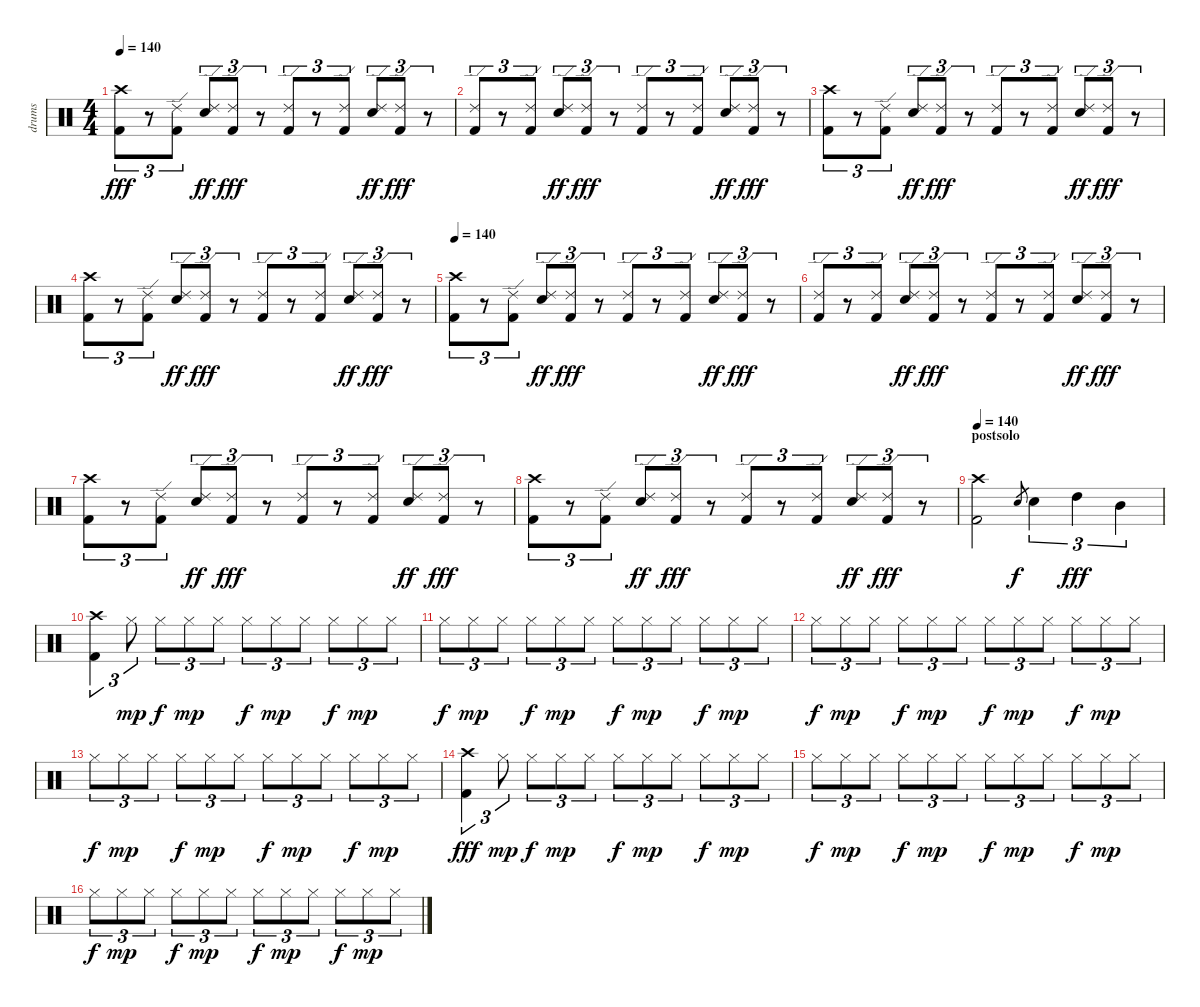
\track ("drums" "drums") {instrument percussion}
\staff {score}
\articulation defaults
\ts (4 4)
\tempo 140
\clef neutral
\ks c
("Crash high (hit)" "Kick (hit) 2").8{tu (3 2) dy fff} r.8{tu (3 2)} ("Ride (edge) 2" "Kick (hit) 2").8{tu (3 2)} ("Ride (edge) 2" "Snare (hit) 2").8{tu (3 2) dy ff} ("Ride (edge) 2" "Kick (hit) 2").8{tu (3 2) dy fff} r.8{tu (3 2)} ("Ride (edge) 2" "Kick (hit) 2").8{tu (3 2)} r.8{tu (3 2)} ("Ride (edge) 2" "Kick (hit) 2").8{tu (3 2)} ("Ride (edge) 2" "Snare (hit) 2").8{tu (3 2) dy ff} ("Ride (edge) 2" "Kick (hit) 2").8{tu (3 2) dy fff} r.8{tu (3 2)} |
("Ride (edge) 2" "Kick (hit) 2").8{tu (3 2)} r.8{tu (3 2)} ("Ride (edge) 2" "Kick (hit) 2").8{tu (3 2)} ("Ride (edge) 2" "Snare (hit) 2").8{tu (3 2) dy ff} ("Ride (edge) 2" "Kick (hit) 2").8{tu (3 2) dy fff} r.8{tu (3 2)} ("Ride (edge) 2" "Kick (hit) 2").8{tu (3 2)} r.8{tu (3 2)} ("Ride (edge) 2" "Kick (hit) 2").8{tu (3 2)} ("Ride (edge) 2" "Snare (hit) 2").8{tu (3 2) dy ff} ("Ride (edge) 2" "Kick (hit) 2").8{tu (3 2) dy fff} r.8{tu (3 2)} |
("Crash high (hit)" "Kick (hit) 2").8{tu (3 2)} r.8{tu (3 2)} ("Ride (edge) 2" "Kick (hit) 2").8{tu (3 2)} ("Ride (edge) 2" "Snare (hit) 2").8{tu (3 2) dy ff} ("Ride (edge) 2" "Kick (hit) 2").8{tu (3 2) dy fff} r.8{tu (3 2)} ("Ride (edge) 2" "Kick (hit) 2").8{tu (3 2)} r.8{tu (3 2)} ("Ride (edge) 2" "Kick (hit) 2").8{tu (3 2)} ("Ride (edge) 2" "Snare (hit) 2").8{tu (3 2) dy ff} ("Ride (edge) 2" "Kick (hit) 2").8{tu (3 2) dy fff} r.8{tu (3 2)} |
("Crash high (hit)" "Kick (hit) 2").8{tu (3 2)} r.8{tu (3 2)} ("Ride (edge) 2" "Kick (hit) 2").8{tu (3 2)} ("Ride (edge) 2" "Snare (hit) 2").8{tu (3 2) dy ff} ("Ride (edge) 2" "Kick (hit) 2").8{tu (3 2) dy fff} r.8{tu (3 2)} ("Ride (edge) 2" "Kick (hit) 2").8{tu (3 2)} r.8{tu (3 2)} ("Ride (edge) 2" "Kick (hit) 2").8{tu (3 2)} ("Ride (edge) 2" "Snare (hit) 2").8{tu (3 2) dy ff} ("Ride (edge) 2" "Kick (hit) 2").8{tu (3 2) dy fff} r.8{tu (3 2)} |
\tempo 140
("Crash high (hit)" "Kick (hit) 2").8{tu (3 2)} r.8{tu (3 2)} ("Ride (edge) 2" "Kick (hit) 2").8{tu (3 2)} ("Ride (edge) 2" "Snare (hit) 2").8{tu (3 2) dy ff} ("Ride (edge) 2" "Kick (hit) 2").8{tu (3 2) dy fff} r.8{tu (3 2)} ("Ride (edge) 2" "Kick (hit) 2").8{tu (3 2)} r.8{tu (3 2)} ("Ride (edge) 2" "Kick (hit) 2").8{tu (3 2)} ("Ride (edge) 2" "Snare (hit) 2").8{tu (3 2) dy ff} ("Ride (edge) 2" "Kick (hit) 2").8{tu (3 2) dy fff} r.8{tu (3 2)} |
("Ride (edge) 2" "Kick (hit) 2").8{tu (3 2)} r.8{tu (3 2)} ("Ride (edge) 2" "Kick (hit) 2").8{tu (3 2)} ("Ride (edge) 2" "Snare (hit) 2").8{tu (3 2) dy ff} ("Ride (edge) 2" "Kick (hit) 2").8{tu (3 2) dy fff} r.8{tu (3 2)} ("Ride (edge) 2" "Kick (hit) 2").8{tu (3 2)} r.8{tu (3 2)} ("Ride (edge) 2" "Kick (hit) 2").8{tu (3 2)} ("Ride (edge) 2" "Snare (hit) 2").8{tu (3 2) dy ff} ("Ride (edge) 2" "Kick (hit) 2").8{tu (3 2) dy fff} r.8{tu (3 2)} |
("Crash high (hit)" "Kick (hit) 2").8{tu (3 2)} r.8{tu (3 2)} ("Ride (edge) 2" "Kick (hit) 2").8{tu (3 2)} ("Ride (edge) 2" "Snare (hit) 2").8{tu (3 2) dy ff} ("Ride (edge) 2" "Kick (hit) 2").8{tu (3 2) dy fff} r.8{tu (3 2)} ("Ride (edge) 2" "Kick (hit) 2").8{tu (3 2)} r.8{tu (3 2)} ("Ride (edge) 2" "Kick (hit) 2").8{tu (3 2)} ("Ride (edge) 2" "Snare (hit) 2").8{tu (3 2) dy ff} ("Ride (edge) 2" "Kick (hit) 2").8{tu (3 2) dy fff} r.8{tu (3 2)} |
("Crash high (hit)" "Kick (hit) 2").8{tu (3 2)} r.8{tu (3 2)} ("Ride (edge) 2" "Kick (hit) 2").8{tu (3 2)} ("Ride (edge) 2" "Snare (hit) 2").8{tu (3 2) dy ff} ("Ride (edge) 2" "Kick (hit) 2").8{tu (3 2) dy fff} r.8{tu (3 2)} ("Ride (edge) 2" "Kick (hit) 2").8{tu (3 2)} r.8{tu (3 2)} ("Ride (edge) 2" "Kick (hit) 2").8{tu (3 2)} ("Ride (edge) 2" "Snare (hit) 2").8{tu (3 2) dy ff} ("Ride (edge) 2" "Kick (hit) 2").8{tu (3 2) dy fff} r.8{tu (3 2)} |
\section ("" "postsolo")
\tempo 140
("Crash high (hit)" "Kick (hit) 2").2 "Snare (hit) 2".8{gr dy f} "Snare (hit) 2".4{tu (3 2)} "High Tom (hit)".4{tu (3 2) dy fff} "Mid Tom (hit)".4{tu (3 2)} |
("Crash high (hit)" "Kick (hit) 2").4{tu (3 2)} "Hi-Hat (closed)".8{tu (3 2) dy mp} "Hi-Hat (closed)".8{tu (3 2) dy f} "Hi-Hat (closed)".8{tu (3 2) dy mp} "Hi-Hat (closed)".8{tu (3 2)} "Hi-Hat (closed)".8{tu (3 2) dy f} "Hi-Hat (closed)".8{tu (3 2) dy mp} "Hi-Hat (closed)".8{tu (3 2)} "Hi-Hat (closed)".8{tu (3 2) dy f} "Hi-Hat (closed)".8{tu (3 2) dy mp} "Hi-Hat (closed)".8{tu (3 2)} |
"Hi-Hat (closed)".8{tu (3 2) dy f} "Hi-Hat (closed)".8{tu (3 2) dy mp} "Hi-Hat (closed)".8{tu (3 2)} "Hi-Hat (closed)".8{tu (3 2) dy f} "Hi-Hat (closed)".8{tu (3 2) dy mp} "Hi-Hat (closed)".8{tu (3 2)} "Hi-Hat (closed)".8{tu (3 2) dy f} "Hi-Hat (closed)".8{tu (3 2) dy mp} "Hi-Hat (closed)".8{tu (3 2)} "Hi-Hat (closed)".8{tu (3 2) dy f} "Hi-Hat (closed)".8{tu (3 2) dy mp} "Hi-Hat (closed)".8{tu (3 2)} |
"Hi-Hat (closed)".8{tu (3 2) dy f} "Hi-Hat (closed)".8{tu (3 2) dy mp} "Hi-Hat (closed)".8{tu (3 2)} "Hi-Hat (closed)".8{tu (3 2) dy f} "Hi-Hat (closed)".8{tu (3 2) dy mp} "Hi-Hat (closed)".8{tu (3 2)} "Hi-Hat (closed)".8{tu (3 2) dy f} "Hi-Hat (closed)".8{tu (3 2) dy mp} "Hi-Hat (closed)".8{tu (3 2)} "Hi-Hat (closed)".8{tu (3 2) dy f} "Hi-Hat (closed)".8{tu (3 2) dy mp} "Hi-Hat (closed)".8{tu (3 2)} |
"Hi-Hat (closed)".8{tu (3 2) dy f} "Hi-Hat (closed)".8{tu (3 2) dy mp} "Hi-Hat (closed)".8{tu (3 2)} "Hi-Hat (closed)".8{tu (3 2) dy f} "Hi-Hat (closed)".8{tu (3 2) dy mp} "Hi-Hat (closed)".8{tu (3 2)} "Hi-Hat (closed)".8{tu (3 2) dy f} "Hi-Hat (closed)".8{tu (3 2) dy mp} "Hi-Hat (closed)".8{tu (3 2)} "Hi-Hat (closed)".8{tu (3 2) dy f} "Hi-Hat (closed)".8{tu (3 2) dy mp} "Hi-Hat (closed)".8{tu (3 2)} |
("Crash high (hit)" "Kick (hit) 2").4{tu (3 2) dy fff} "Hi-Hat (closed)".8{tu (3 2) dy mp} "Hi-Hat (closed)".8{tu (3 2) dy f} "Hi-Hat (closed)".8{tu (3 2) dy mp} "Hi-Hat (closed)".8{tu (3 2)} "Hi-Hat (closed)".8{tu (3 2) dy f} "Hi-Hat (closed)".8{tu (3 2) dy mp} "Hi-Hat (closed)".8{tu (3 2)} "Hi-Hat (closed)".8{tu (3 2) dy f} "Hi-Hat (closed)".8{tu (3 2) dy mp} "Hi-Hat (closed)".8{tu (3 2)} |
"Hi-Hat (closed)".8{tu (3 2) dy f} "Hi-Hat (closed)".8{tu (3 2) dy mp} "Hi-Hat (closed)".8{tu (3 2)} "Hi-Hat (closed)".8{tu (3 2) dy f} "Hi-Hat (closed)".8{tu (3 2) dy mp} "Hi-Hat (closed)".8{tu (3 2)} "Hi-Hat (closed)".8{tu (3 2) dy f} "Hi-Hat (closed)".8{tu (3 2) dy mp} "Hi-Hat (closed)".8{tu (3 2)} "Hi-Hat (closed)".8{tu (3 2) dy f} "Hi-Hat (closed)".8{tu (3 2) dy mp} "Hi-Hat (closed)".8{tu (3 2)} |
"Hi-Hat (closed)".8{tu (3 2) dy f} "Hi-Hat (closed)".8{tu (3 2) dy mp} "Hi-Hat (closed)".8{tu (3 2)} "Hi-Hat (closed)".8{tu (3 2) dy f} "Hi-Hat (closed)".8{tu (3 2) dy mp} "Hi-Hat (closed)".8{tu (3 2)} "Hi-Hat (closed)".8{tu (3 2) dy f} "Hi-Hat (closed)".8{tu (3 2) dy mp} "Hi-Hat (closed)".8{tu (3 2)} "Hi-Hat (closed)".8{tu (3 2) dy f} "Hi-Hat (closed)".8{tu (3 2) dy mp} "Hi-Hat (closed)".8{tu (3 2)}
